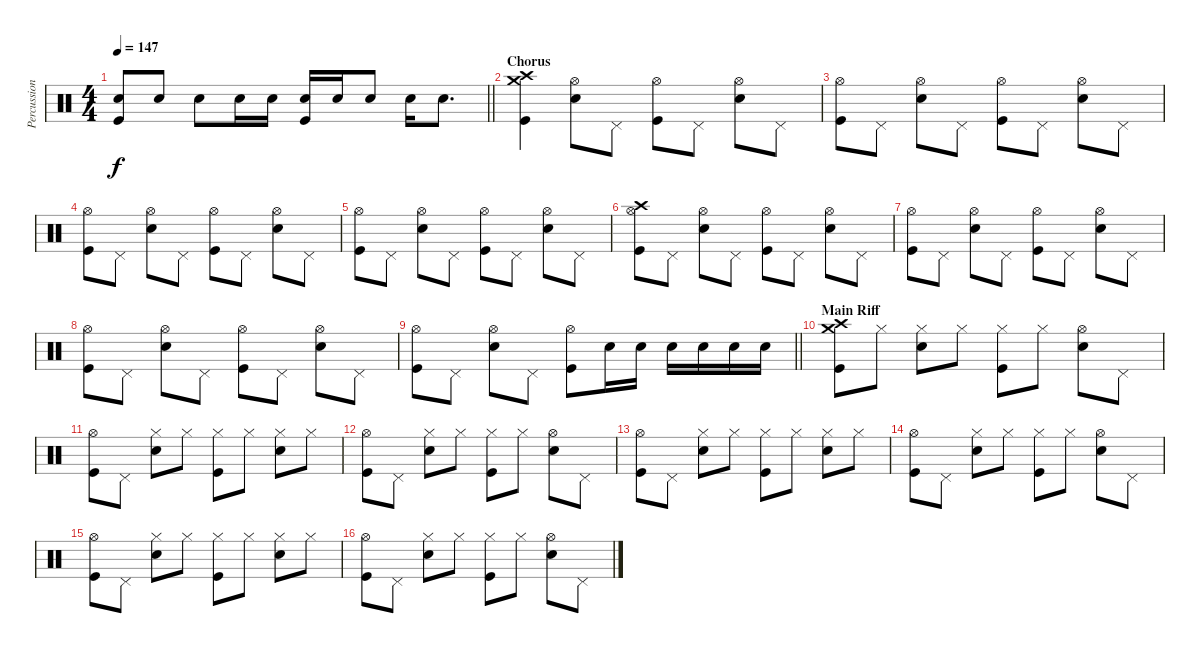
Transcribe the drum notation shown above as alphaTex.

\track ("Percussion" "Percussion") {instrument percussion}
\staff {score}
\articulation defaults
\ts (4 4)
\tempo 147
\clef neutral
\barLineRight lightlight
\ks c
("Electric Snare (hit)" "Kick (hit)").8{dy f} "Electric Snare (hit)".8 "Electric Snare (hit)".8 "Electric Snare (hit)".16 "Electric Snare (hit)".16 ("Electric Snare (hit)" "Kick (hit)").16 "Electric Snare (hit)".16 "Electric Snare (hit)".8 "Electric Snare (hit)".16 "Electric Snare (hit)".8{d} |
\section ("" "Chorus")
("Crash high (hit)" "Crash medium (hit)" "Kick (hit)").4 ("Hi-Hat (open)" "Electric Snare (hit)").8 "Pedal Hi-Hat (hit)".8 ("Hi-Hat (open)" "Kick (hit)").8 "Pedal Hi-Hat (hit)".8 ("Hi-Hat (open)" "Electric Snare (hit)").8 "Pedal Hi-Hat (hit)".8 |
("Hi-Hat (open)" "Kick (hit)").8 "Pedal Hi-Hat (hit)".8 ("Hi-Hat (open)" "Electric Snare (hit)").8 "Pedal Hi-Hat (hit)".8 ("Hi-Hat (open)" "Kick (hit)").8 "Pedal Hi-Hat (hit)".8 ("Hi-Hat (open)" "Electric Snare (hit)").8 "Pedal Hi-Hat (hit)".8 |
("Hi-Hat (open)" "Kick (hit)").8 "Pedal Hi-Hat (hit)".8 ("Hi-Hat (open)" "Electric Snare (hit)").8 "Pedal Hi-Hat (hit)".8 ("Hi-Hat (open)" "Kick (hit)").8 "Pedal Hi-Hat (hit)".8 ("Hi-Hat (open)" "Electric Snare (hit)").8 "Pedal Hi-Hat (hit)".8 |
("Hi-Hat (open)" "Kick (hit)").8 "Pedal Hi-Hat (hit)".8 ("Hi-Hat (open)" "Electric Snare (hit)").8 "Pedal Hi-Hat (hit)".8 ("Hi-Hat (open)" "Kick (hit)").8 "Pedal Hi-Hat (hit)".8 ("Hi-Hat (open)" "Electric Snare (hit)").8 "Pedal Hi-Hat (hit)".8 |
("Crash high (hit)" "Hi-Hat (open)" "Kick (hit)").8 "Pedal Hi-Hat (hit)".8 ("Hi-Hat (open)" "Electric Snare (hit)").8 "Pedal Hi-Hat (hit)".8 ("Hi-Hat (open)" "Kick (hit)").8 "Pedal Hi-Hat (hit)".8 ("Hi-Hat (open)" "Electric Snare (hit)").8 "Pedal Hi-Hat (hit)".8 |
("Hi-Hat (open)" "Kick (hit)").8 "Pedal Hi-Hat (hit)".8 ("Hi-Hat (open)" "Electric Snare (hit)").8 "Pedal Hi-Hat (hit)".8 ("Hi-Hat (open)" "Kick (hit)").8 "Pedal Hi-Hat (hit)".8 ("Hi-Hat (open)" "Electric Snare (hit)").8 "Pedal Hi-Hat (hit)".8 |
("Hi-Hat (open)" "Kick (hit)").8 "Pedal Hi-Hat (hit)".8 ("Hi-Hat (open)" "Electric Snare (hit)").8 "Pedal Hi-Hat (hit)".8 ("Hi-Hat (open)" "Kick (hit)").8 "Pedal Hi-Hat (hit)".8 ("Hi-Hat (open)" "Electric Snare (hit)").8 "Pedal Hi-Hat (hit)".8 |
\barLineRight lightlight
("Hi-Hat (open)" "Kick (hit)").8 "Pedal Hi-Hat (hit)".8 ("Hi-Hat (open)" "Electric Snare (hit)").8 "Pedal Hi-Hat (hit)".8 ("Hi-Hat (open)" "Kick (hit)").8 "Electric Snare (hit)".16 "Electric Snare (hit)".16 "Electric Snare (hit)".16 "Electric Snare (hit)".16 "Electric Snare (hit)".16 "Electric Snare (hit)".16 |
\section ("" "Main Riff")
("Crash high (hit)" "Crash medium (hit)" "Kick (hit)").8 "Hi-Hat (closed)".8 ("Hi-Hat (closed)" "Electric Snare (hit)").8 "Hi-Hat (closed)".8 ("Hi-Hat (closed)" "Kick (hit)").8 "Hi-Hat (closed)".8 ("Hi-Hat (open)" "Electric Snare (hit)").8 "Pedal Hi-Hat (hit)".8 |
("Hi-Hat (open)" "Kick (hit)").8 "Pedal Hi-Hat (hit)".8 ("Hi-Hat (closed)" "Electric Snare (hit)").8 "Hi-Hat (closed)".8 ("Hi-Hat (closed)" "Kick (hit)").8 "Hi-Hat (closed)".8 ("Hi-Hat (closed)" "Electric Snare (hit)").8 "Hi-Hat (closed)".8 |
("Hi-Hat (open)" "Kick (hit)").8 "Pedal Hi-Hat (hit)".8 ("Hi-Hat (closed)" "Electric Snare (hit)").8 "Hi-Hat (closed)".8 ("Hi-Hat (closed)" "Kick (hit)").8 "Hi-Hat (closed)".8 ("Hi-Hat (open)" "Electric Snare (hit)").8 "Pedal Hi-Hat (hit)".8 |
("Hi-Hat (open)" "Kick (hit)").8 "Pedal Hi-Hat (hit)".8 ("Hi-Hat (closed)" "Electric Snare (hit)").8 "Hi-Hat (closed)".8 ("Hi-Hat (closed)" "Kick (hit)").8 "Hi-Hat (closed)".8 ("Hi-Hat (closed)" "Electric Snare (hit)").8 "Hi-Hat (closed)".8 |
("Hi-Hat (open)" "Kick (hit)").8 "Pedal Hi-Hat (hit)".8 ("Hi-Hat (closed)" "Electric Snare (hit)").8 "Hi-Hat (closed)".8 ("Hi-Hat (closed)" "Kick (hit)").8 "Hi-Hat (closed)".8 ("Hi-Hat (open)" "Electric Snare (hit)").8 "Pedal Hi-Hat (hit)".8 |
("Hi-Hat (open)" "Kick (hit)").8 "Pedal Hi-Hat (hit)".8 ("Hi-Hat (closed)" "Electric Snare (hit)").8 "Hi-Hat (closed)".8 ("Hi-Hat (closed)" "Kick (hit)").8 "Hi-Hat (closed)".8 ("Hi-Hat (closed)" "Electric Snare (hit)").8 "Hi-Hat (closed)".8 |
("Hi-Hat (open)" "Kick (hit)").8 "Pedal Hi-Hat (hit)".8 ("Hi-Hat (closed)" "Electric Snare (hit)").8 "Hi-Hat (closed)".8 ("Hi-Hat (closed)" "Kick (hit)").8 "Hi-Hat (closed)".8 ("Hi-Hat (open)" "Electric Snare (hit)").8 "Pedal Hi-Hat (hit)".8
